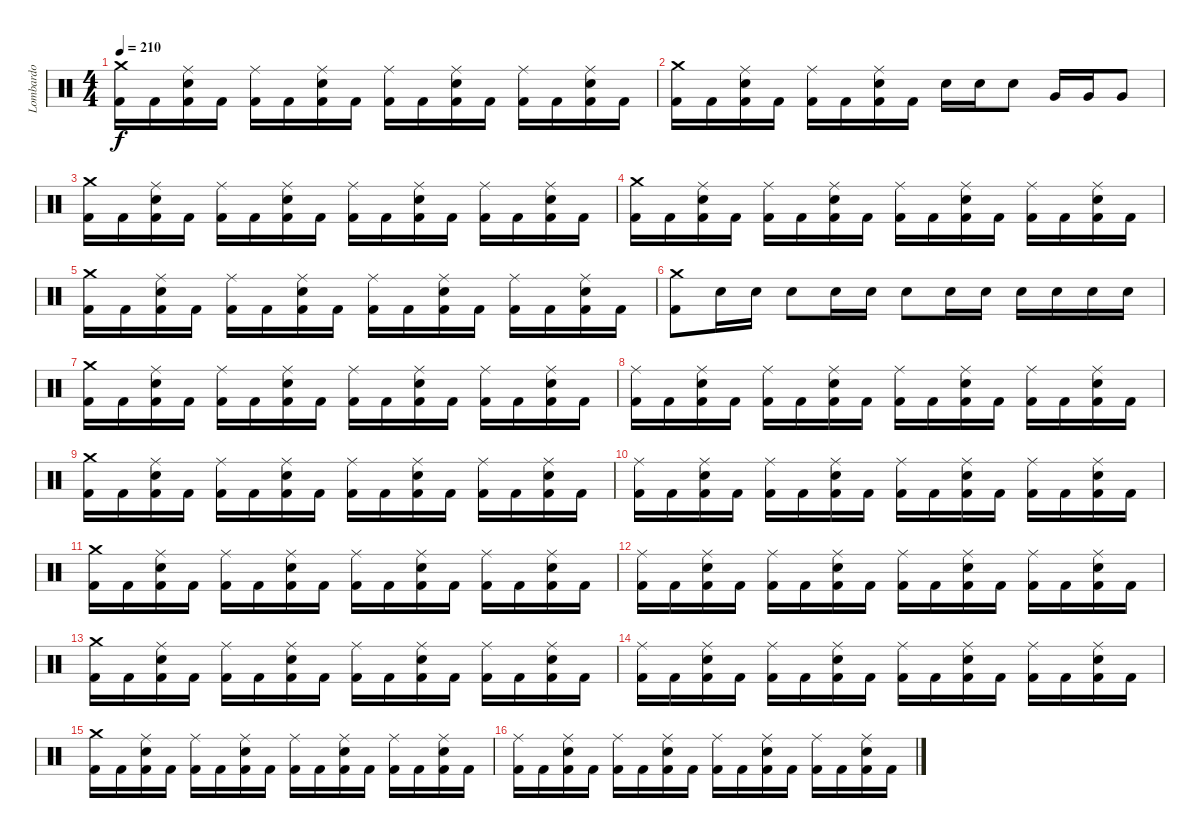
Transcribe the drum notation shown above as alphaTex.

\track ("Lombardo" "Lombardo") {instrument percussion}
\staff {score}
\articulation defaults
\ts (4 4)
\tempo 210
\clef neutral
\ks c
("Crash medium (hit)" "Kick (hit) 2").16{dy f} "Kick (hit) 2".16 ("Ride (middle)" "Snare (hit) 2" "Kick (hit) 2").16 "Kick (hit) 2".16 ("Ride (middle)" "Kick (hit) 2").16 "Kick (hit) 2".16 ("Ride (middle)" "Snare (hit) 2" "Kick (hit) 2").16 "Kick (hit) 2".16 ("Ride (middle)" "Kick (hit) 2").16 "Kick (hit) 2".16 ("Ride (middle)" "Snare (hit) 2" "Kick (hit) 2").16 "Kick (hit) 2".16 ("Ride (middle)" "Kick (hit) 2").16 "Kick (hit) 2".16 ("Ride (middle)" "Snare (hit) 2" "Kick (hit) 2").16 "Kick (hit) 2".16 |
("Crash medium (hit)" "Kick (hit) 2").16 "Kick (hit) 2".16 ("Ride (middle)" "Snare (hit) 2" "Kick (hit) 2").16 "Kick (hit) 2".16 ("Ride (middle)" "Kick (hit) 2").16 "Kick (hit) 2".16 ("Ride (middle)" "Snare (hit) 2" "Kick (hit) 2").16 "Kick (hit) 2".16 "Snare (hit) 2".16 "Snare (hit) 2".16 "Snare (hit) 2".8 "Very Low Tom (hit)".16 "Very Low Tom (hit)".16 "Very Low Tom (hit)".8 |
("Crash medium (hit)" "Kick (hit) 2").16 "Kick (hit) 2".16 ("Ride (middle)" "Snare (hit) 2" "Kick (hit) 2").16 "Kick (hit) 2".16 ("Ride (middle)" "Kick (hit) 2").16 "Kick (hit) 2".16 ("Ride (middle)" "Snare (hit) 2" "Kick (hit) 2").16 "Kick (hit) 2".16 ("Ride (middle)" "Kick (hit) 2").16 "Kick (hit) 2".16 ("Ride (middle)" "Snare (hit) 2" "Kick (hit) 2").16 "Kick (hit) 2".16 ("Ride (middle)" "Kick (hit) 2").16 "Kick (hit) 2".16 ("Ride (middle)" "Snare (hit) 2" "Kick (hit) 2").16 "Kick (hit) 2".16 |
("Crash medium (hit)" "Kick (hit) 2").16 "Kick (hit) 2".16 ("Ride (middle)" "Snare (hit) 2" "Kick (hit) 2").16 "Kick (hit) 2".16 ("Ride (middle)" "Kick (hit) 2").16 "Kick (hit) 2".16 ("Ride (middle)" "Snare (hit) 2" "Kick (hit) 2").16 "Kick (hit) 2".16 ("Ride (middle)" "Kick (hit) 2").16 "Kick (hit) 2".16 ("Ride (middle)" "Snare (hit) 2" "Kick (hit) 2").16 "Kick (hit) 2".16 ("Ride (middle)" "Kick (hit) 2").16 "Kick (hit) 2".16 ("Ride (middle)" "Snare (hit) 2" "Kick (hit) 2").16 "Kick (hit) 2".16 |
("Crash medium (hit)" "Kick (hit) 2").16 "Kick (hit) 2".16 ("Ride (middle)" "Snare (hit) 2" "Kick (hit) 2").16 "Kick (hit) 2".16 ("Ride (middle)" "Kick (hit) 2").16 "Kick (hit) 2".16 ("Ride (middle)" "Snare (hit) 2" "Kick (hit) 2").16 "Kick (hit) 2".16 ("Ride (middle)" "Kick (hit) 2").16 "Kick (hit) 2".16 ("Ride (middle)" "Snare (hit) 2" "Kick (hit) 2").16 "Kick (hit) 2".16 ("Ride (middle)" "Kick (hit) 2").16 "Kick (hit) 2".16 ("Ride (middle)" "Snare (hit) 2" "Kick (hit) 2").16 "Kick (hit) 2".16 |
("Crash medium (hit)" "Kick (hit) 2").8 "Snare (hit) 2".16 "Snare (hit) 2".16 "Snare (hit) 2".8 "Snare (hit) 2".16 "Snare (hit) 2".16 "Snare (hit) 2".8 "Snare (hit) 2".16 "Snare (hit) 2".16 "Snare (hit) 2".16 "Snare (hit) 2".16 "Snare (hit) 2".16 "Snare (hit) 2".16 |
("Crash medium (hit)" "Kick (hit) 2").16 "Kick (hit) 2".16 ("Ride (middle)" "Snare (hit) 2" "Kick (hit) 2").16 "Kick (hit) 2".16 ("Ride (middle)" "Kick (hit) 2").16 "Kick (hit) 2".16 ("Ride (middle)" "Snare (hit) 2" "Kick (hit) 2").16 "Kick (hit) 2".16 ("Ride (middle)" "Kick (hit) 2").16 "Kick (hit) 2".16 ("Ride (middle)" "Snare (hit) 2" "Kick (hit) 2").16 "Kick (hit) 2".16 ("Ride (middle)" "Kick (hit) 2").16 "Kick (hit) 2".16 ("Ride (middle)" "Snare (hit) 2" "Kick (hit) 2").16 "Kick (hit) 2".16 |
("Ride (middle)" "Kick (hit) 2").16 "Kick (hit) 2".16 ("Ride (middle)" "Snare (hit) 2" "Kick (hit) 2").16 "Kick (hit) 2".16 ("Ride (middle)" "Kick (hit) 2").16 "Kick (hit) 2".16 ("Ride (middle)" "Snare (hit) 2" "Kick (hit) 2").16 "Kick (hit) 2".16 ("Ride (middle)" "Kick (hit) 2").16 "Kick (hit) 2".16 ("Ride (middle)" "Snare (hit) 2" "Kick (hit) 2").16 "Kick (hit) 2".16 ("Ride (middle)" "Kick (hit) 2").16 "Kick (hit) 2".16 ("Ride (middle)" "Snare (hit) 2" "Kick (hit) 2").16 "Kick (hit) 2".16 |
("Crash medium (hit)" "Kick (hit) 2").16 "Kick (hit) 2".16 ("Ride (middle)" "Snare (hit) 2" "Kick (hit) 2").16 "Kick (hit) 2".16 ("Ride (middle)" "Kick (hit) 2").16 "Kick (hit) 2".16 ("Ride (middle)" "Snare (hit) 2" "Kick (hit) 2").16 "Kick (hit) 2".16 ("Ride (middle)" "Kick (hit) 2").16 "Kick (hit) 2".16 ("Ride (middle)" "Snare (hit) 2" "Kick (hit) 2").16 "Kick (hit) 2".16 ("Ride (middle)" "Kick (hit) 2").16 "Kick (hit) 2".16 ("Ride (middle)" "Snare (hit) 2" "Kick (hit) 2").16 "Kick (hit) 2".16 |
("Ride (middle)" "Kick (hit) 2").16 "Kick (hit) 2".16 ("Ride (middle)" "Snare (hit) 2" "Kick (hit) 2").16 "Kick (hit) 2".16 ("Ride (middle)" "Kick (hit) 2").16 "Kick (hit) 2".16 ("Ride (middle)" "Snare (hit) 2" "Kick (hit) 2").16 "Kick (hit) 2".16 ("Ride (middle)" "Kick (hit) 2").16 "Kick (hit) 2".16 ("Ride (middle)" "Snare (hit) 2" "Kick (hit) 2").16 "Kick (hit) 2".16 ("Ride (middle)" "Kick (hit) 2").16 "Kick (hit) 2".16 ("Ride (middle)" "Snare (hit) 2" "Kick (hit) 2").16 "Kick (hit) 2".16 |
("Crash medium (hit)" "Kick (hit) 2").16 "Kick (hit) 2".16 ("Ride (middle)" "Snare (hit) 2" "Kick (hit) 2").16 "Kick (hit) 2".16 ("Ride (middle)" "Kick (hit) 2").16 "Kick (hit) 2".16 ("Ride (middle)" "Snare (hit) 2" "Kick (hit) 2").16 "Kick (hit) 2".16 ("Ride (middle)" "Kick (hit) 2").16 "Kick (hit) 2".16 ("Ride (middle)" "Snare (hit) 2" "Kick (hit) 2").16 "Kick (hit) 2".16 ("Ride (middle)" "Kick (hit) 2").16 "Kick (hit) 2".16 ("Ride (middle)" "Snare (hit) 2" "Kick (hit) 2").16 "Kick (hit) 2".16 |
("Ride (middle)" "Kick (hit) 2").16 "Kick (hit) 2".16 ("Ride (middle)" "Snare (hit) 2" "Kick (hit) 2").16 "Kick (hit) 2".16 ("Ride (middle)" "Kick (hit) 2").16 "Kick (hit) 2".16 ("Ride (middle)" "Snare (hit) 2" "Kick (hit) 2").16 "Kick (hit) 2".16 ("Ride (middle)" "Kick (hit) 2").16 "Kick (hit) 2".16 ("Ride (middle)" "Snare (hit) 2" "Kick (hit) 2").16 "Kick (hit) 2".16 ("Ride (middle)" "Kick (hit) 2").16 "Kick (hit) 2".16 ("Ride (middle)" "Snare (hit) 2" "Kick (hit) 2").16 "Kick (hit) 2".16 |
("Crash medium (hit)" "Kick (hit) 2").16 "Kick (hit) 2".16 ("Ride (middle)" "Snare (hit) 2" "Kick (hit) 2").16 "Kick (hit) 2".16 ("Ride (middle)" "Kick (hit) 2").16 "Kick (hit) 2".16 ("Ride (middle)" "Snare (hit) 2" "Kick (hit) 2").16 "Kick (hit) 2".16 ("Ride (middle)" "Kick (hit) 2").16 "Kick (hit) 2".16 ("Ride (middle)" "Snare (hit) 2" "Kick (hit) 2").16 "Kick (hit) 2".16 ("Ride (middle)" "Kick (hit) 2").16 "Kick (hit) 2".16 ("Ride (middle)" "Snare (hit) 2" "Kick (hit) 2").16 "Kick (hit) 2".16 |
("Ride (middle)" "Kick (hit) 2").16 "Kick (hit) 2".16 ("Ride (middle)" "Snare (hit) 2" "Kick (hit) 2").16 "Kick (hit) 2".16 ("Ride (middle)" "Kick (hit) 2").16 "Kick (hit) 2".16 ("Ride (middle)" "Snare (hit) 2" "Kick (hit) 2").16 "Kick (hit) 2".16 ("Ride (middle)" "Kick (hit) 2").16 "Kick (hit) 2".16 ("Ride (middle)" "Snare (hit) 2" "Kick (hit) 2").16 "Kick (hit) 2".16 ("Ride (middle)" "Kick (hit) 2").16 "Kick (hit) 2".16 ("Ride (middle)" "Snare (hit) 2" "Kick (hit) 2").16 "Kick (hit) 2".16 |
("Crash medium (hit)" "Kick (hit) 2").16 "Kick (hit) 2".16 ("Ride (middle)" "Snare (hit) 2" "Kick (hit) 2").16 "Kick (hit) 2".16 ("Ride (middle)" "Kick (hit) 2").16 "Kick (hit) 2".16 ("Ride (middle)" "Snare (hit) 2" "Kick (hit) 2").16 "Kick (hit) 2".16 ("Ride (middle)" "Kick (hit) 2").16 "Kick (hit) 2".16 ("Ride (middle)" "Snare (hit) 2" "Kick (hit) 2").16 "Kick (hit) 2".16 ("Ride (middle)" "Kick (hit) 2").16 "Kick (hit) 2".16 ("Ride (middle)" "Snare (hit) 2" "Kick (hit) 2").16 "Kick (hit) 2".16 |
("Ride (middle)" "Kick (hit) 2").16 "Kick (hit) 2".16 ("Ride (middle)" "Snare (hit) 2" "Kick (hit) 2").16 "Kick (hit) 2".16 ("Ride (middle)" "Kick (hit) 2").16 "Kick (hit) 2".16 ("Ride (middle)" "Snare (hit) 2" "Kick (hit) 2").16 "Kick (hit) 2".16 ("Ride (middle)" "Kick (hit) 2").16 "Kick (hit) 2".16 ("Ride (middle)" "Snare (hit) 2" "Kick (hit) 2").16 "Kick (hit) 2".16 ("Ride (middle)" "Kick (hit) 2").16 "Kick (hit) 2".16 ("Ride (middle)" "Snare (hit) 2" "Kick (hit) 2").16 "Kick (hit) 2".16
